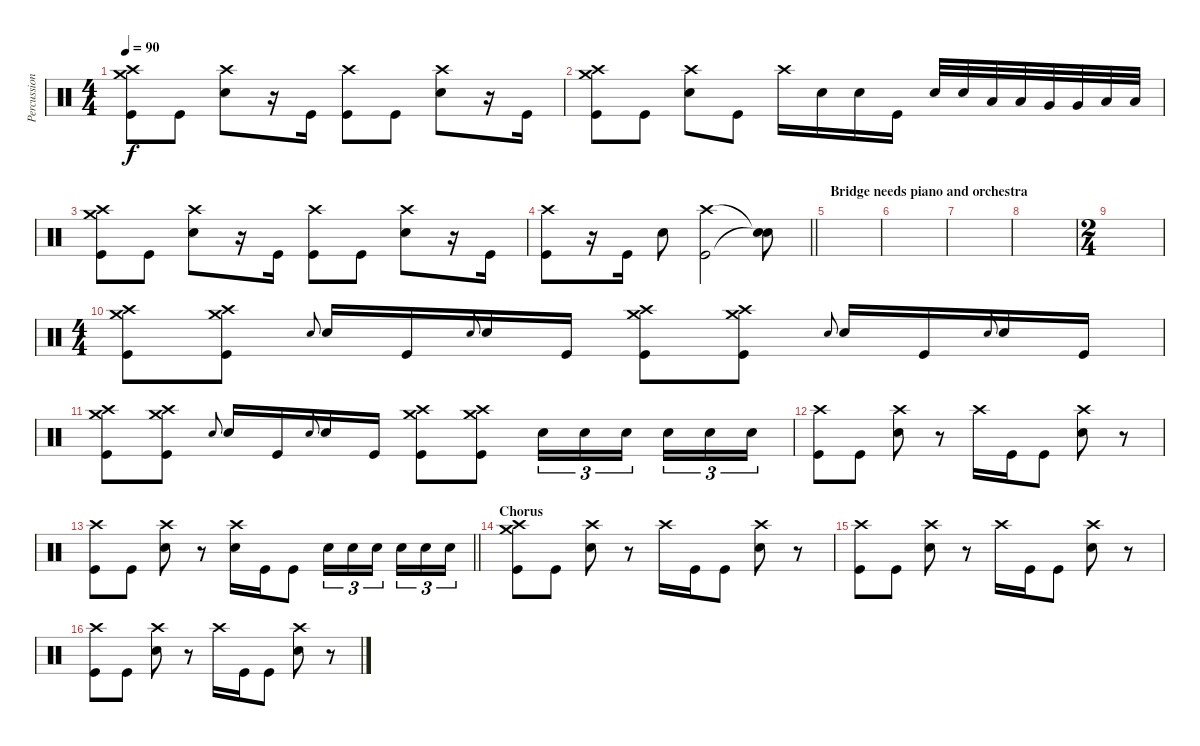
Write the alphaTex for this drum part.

\track ("Percussion" "Percussion") {instrument percussion}
\staff {score}
\articulation defaults
\ts (4 4)
\tempo 90
\clef neutral
\ks c
("Crash high (hit)" "Crash medium (hit)" "Kick (hit)").8{dy f} "Kick (hit)".8 ("Crash high (hit)" "Electric Snare (hit)").8 r.16 "Kick (hit)".16 ("Crash high (hit)" "Kick (hit)").8 "Kick (hit)".8 ("Crash high (hit)" "Electric Snare (hit)").8 r.16 "Kick (hit)".16 |
("Crash high (hit)" "Crash medium (hit)" "Kick (hit)").8 "Kick (hit)".8 ("Crash high (hit)" "Electric Snare (hit)").8 "Kick (hit)".8 "Crash high (hit)".16 "Electric Snare (hit)".16 "Electric Snare (hit)".16 "Kick (hit)".16 "Electric Snare (hit)".32 "Electric Snare (hit)".32 "Low Tom (hit)".32 "Low Tom (hit)".32 "Very Low Tom (hit)".32 "Very Low Tom (hit)".32 "Low Floor Tom (hit)".32 "Low Floor Tom (hit)".32 |
("Crash high (hit)" "Crash medium (hit)" "Kick (hit)").8 "Kick (hit)".8 ("Crash high (hit)" "Electric Snare (hit)").8 r.16 "Kick (hit)".16 ("Crash high (hit)" "Kick (hit)").8 "Kick (hit)".8 ("Crash high (hit)" "Electric Snare (hit)").8 r.16 "Kick (hit)".16 |
\barLineRight lightlight
("Crash high (hit)" "Kick (hit)").8 r.16 "Kick (hit)".16 "Electric Snare (hit)".8 ("Crash high (hit)" "Kick (hit)").2 ("Snare (hit)"{t} "Snare (hit)"{t}).8 |
\section ("" "Bridge needs piano and orchestra")
|
|
|
|
\ts (2 4)
|
\ts (4 4)
("Crash medium (hit)" "Crash high (hit)" "Kick (hit)").8 ("Crash medium (hit)" "Crash high (hit)" "Kick (hit)").8 "Electric Snare (hit)".8{gr onbeat} "Electric Snare (hit)".16 "Kick (hit)".16 "Electric Snare (hit)".8{gr onbeat} "Electric Snare (hit)".16 "Kick (hit)".16 ("Crash medium (hit)" "Crash high (hit)" "Kick (hit)").8 ("Crash medium (hit)" "Crash high (hit)" "Kick (hit)").8 "Electric Snare (hit)".8{gr onbeat} "Electric Snare (hit)".16 "Kick (hit)".16 "Electric Snare (hit)".8{gr onbeat} "Electric Snare (hit)".16 "Kick (hit)".16 |
("Crash medium (hit)" "Crash high (hit)" "Kick (hit)").8 ("Crash medium (hit)" "Crash high (hit)" "Kick (hit)").8 "Electric Snare (hit)".8{gr onbeat} "Electric Snare (hit)".16 "Kick (hit)".16 "Electric Snare (hit)".8{gr onbeat} "Electric Snare (hit)".16 "Kick (hit)".16 ("Crash medium (hit)" "Crash high (hit)" "Kick (hit)").8 ("Crash medium (hit)" "Crash high (hit)" "Kick (hit)").8 "Electric Snare (hit)".16{tu (3 2)} "Electric Snare (hit)".16{tu (3 2)} "Electric Snare (hit)".16{tu (3 2) beam splitsecondary} "Electric Snare (hit)".16{tu (3 2)} "Electric Snare (hit)".16{tu (3 2)} "Electric Snare (hit)".16{tu (3 2)} |
("Crash high (hit)" "Kick (hit)").8 "Kick (hit)".8 ("Crash high (hit)" "Electric Snare (hit)").8 r.8 "Crash high (hit)".16 "Kick (hit)".16 "Kick (hit)".8 ("Crash high (hit)" "Electric Snare (hit)").8 r.8 |
\barLineRight lightlight
("Crash high (hit)" "Kick (hit)").8 "Kick (hit)".8 ("Crash high (hit)" "Electric Snare (hit)").8 r.8 ("Crash high (hit)" "Electric Snare (hit)").16 "Kick (hit)".16 "Kick (hit)".8 "Electric Snare (hit)".16{tu (3 2)} "Electric Snare (hit)".16{tu (3 2)} "Electric Snare (hit)".16{tu (3 2) beam splitsecondary} "Electric Snare (hit)".16{tu (3 2)} "Electric Snare (hit)".16{tu (3 2)} "Electric Snare (hit)".16{tu (3 2)} |
\section ("" "Chorus")
("Crash high (hit)" "Crash medium (hit)" "Kick (hit)").8 "Kick (hit)".8 ("Crash high (hit)" "Electric Snare (hit)").8 r.8 "Crash high (hit)".16 "Kick (hit)".16 "Kick (hit)".8 ("Crash high (hit)" "Electric Snare (hit)").8 r.8 |
("Crash high (hit)" "Kick (hit)").8 "Kick (hit)".8 ("Crash high (hit)" "Electric Snare (hit)").8 r.8 "Crash high (hit)".16 "Kick (hit)".16 "Kick (hit)".8 ("Crash high (hit)" "Electric Snare (hit)").8 r.8 |
("Crash high (hit)" "Kick (hit)").8 "Kick (hit)".8 ("Crash high (hit)" "Electric Snare (hit)").8 r.8 "Crash high (hit)".16 "Kick (hit)".16 "Kick (hit)".8 ("Crash high (hit)" "Electric Snare (hit)").8 r.8
